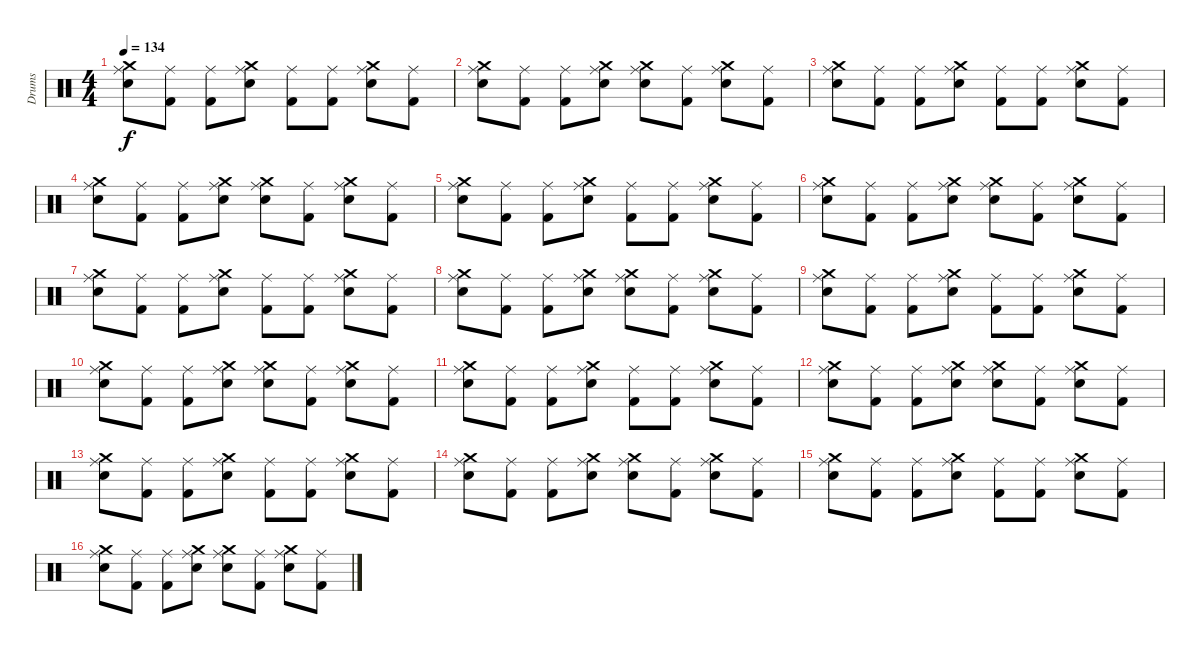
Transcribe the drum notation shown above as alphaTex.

\track ("Drums" "Drums") {instrument percussion}
\staff {score}
\articulation defaults
\ts (4 4)
\tempo 134
\clef neutral
\ks c
("Ride (middle)" "Crash medium (hit)" "Snare (hit) 2").8{dy f volume 13} ("Ride (middle)" "Kick (hit) 2").8 ("Ride (middle)" "Kick (hit) 2").8 ("Ride (middle)" "Crash medium (hit)" "Snare (hit) 2").8 ("Ride (middle)" "Kick (hit) 2").8 ("Ride (middle)" "Kick (hit) 2").8 ("Ride (middle)" "Crash medium (hit)" "Snare (hit) 2").8 ("Ride (middle)" "Kick (hit) 2").8 |
("Ride (middle)" "Crash medium (hit)" "Snare (hit) 2").8 ("Ride (middle)" "Kick (hit) 2").8 ("Ride (middle)" "Kick (hit) 2").8 ("Ride (middle)" "Crash medium (hit)" "Snare (hit) 2").8 ("Ride (middle)" "Crash medium (hit)" "Snare (hit) 2").8 ("Ride (middle)" "Kick (hit) 2").8 ("Ride (middle)" "Crash medium (hit)" "Snare (hit) 2").8 ("Ride (middle)" "Kick (hit) 2").8 |
("Ride (middle)" "Crash medium (hit)" "Snare (hit) 2").8 ("Ride (middle)" "Kick (hit) 2").8 ("Ride (middle)" "Kick (hit) 2").8 ("Ride (middle)" "Crash medium (hit)" "Snare (hit) 2").8 ("Ride (middle)" "Kick (hit) 2").8 ("Ride (middle)" "Kick (hit) 2").8 ("Ride (middle)" "Crash medium (hit)" "Snare (hit) 2").8 ("Ride (middle)" "Kick (hit) 2").8 |
("Ride (middle)" "Crash medium (hit)" "Snare (hit) 2").8 ("Ride (middle)" "Kick (hit) 2").8 ("Ride (middle)" "Kick (hit) 2").8 ("Ride (middle)" "Crash medium (hit)" "Snare (hit) 2").8 ("Ride (middle)" "Crash medium (hit)" "Snare (hit) 2").8 ("Ride (middle)" "Kick (hit) 2").8 ("Ride (middle)" "Crash medium (hit)" "Snare (hit) 2").8 ("Ride (middle)" "Kick (hit) 2").8 |
("Ride (middle)" "Crash medium (hit)" "Snare (hit) 2").8 ("Ride (middle)" "Kick (hit) 2").8 ("Ride (middle)" "Kick (hit) 2").8 ("Ride (middle)" "Crash medium (hit)" "Snare (hit) 2").8 ("Ride (middle)" "Kick (hit) 2").8 ("Ride (middle)" "Kick (hit) 2").8 ("Ride (middle)" "Crash medium (hit)" "Snare (hit) 2").8 ("Ride (middle)" "Kick (hit) 2").8 |
("Ride (middle)" "Crash medium (hit)" "Snare (hit) 2").8 ("Ride (middle)" "Kick (hit) 2").8 ("Ride (middle)" "Kick (hit) 2").8 ("Ride (middle)" "Crash medium (hit)" "Snare (hit) 2").8 ("Ride (middle)" "Crash medium (hit)" "Snare (hit) 2").8 ("Ride (middle)" "Kick (hit) 2").8 ("Ride (middle)" "Crash medium (hit)" "Snare (hit) 2").8 ("Ride (middle)" "Kick (hit) 2").8 |
("Ride (middle)" "Crash medium (hit)" "Snare (hit) 2").8 ("Ride (middle)" "Kick (hit) 2").8 ("Ride (middle)" "Kick (hit) 2").8 ("Ride (middle)" "Crash medium (hit)" "Snare (hit) 2").8 ("Ride (middle)" "Kick (hit) 2").8 ("Ride (middle)" "Kick (hit) 2").8 ("Ride (middle)" "Crash medium (hit)" "Snare (hit) 2").8 ("Ride (middle)" "Kick (hit) 2").8 |
("Ride (middle)" "Crash medium (hit)" "Snare (hit) 2").8 ("Ride (middle)" "Kick (hit) 2").8 ("Ride (middle)" "Kick (hit) 2").8 ("Ride (middle)" "Crash medium (hit)" "Snare (hit) 2").8 ("Ride (middle)" "Crash medium (hit)" "Snare (hit) 2").8 ("Ride (middle)" "Kick (hit) 2").8 ("Ride (middle)" "Crash medium (hit)" "Snare (hit) 2").8 ("Ride (middle)" "Kick (hit) 2").8 |
("Ride (middle)" "Crash medium (hit)" "Snare (hit) 2").8 ("Ride (middle)" "Kick (hit) 2").8 ("Ride (middle)" "Kick (hit) 2").8 ("Ride (middle)" "Crash medium (hit)" "Snare (hit) 2").8 ("Ride (middle)" "Kick (hit) 2").8 ("Ride (middle)" "Kick (hit) 2").8 ("Ride (middle)" "Crash medium (hit)" "Snare (hit) 2").8 ("Ride (middle)" "Kick (hit) 2").8 |
("Ride (middle)" "Crash medium (hit)" "Snare (hit) 2").8 ("Ride (middle)" "Kick (hit) 2").8 ("Ride (middle)" "Kick (hit) 2").8 ("Ride (middle)" "Crash medium (hit)" "Snare (hit) 2").8 ("Ride (middle)" "Crash medium (hit)" "Snare (hit) 2").8 ("Ride (middle)" "Kick (hit) 2").8 ("Ride (middle)" "Crash medium (hit)" "Snare (hit) 2").8 ("Ride (middle)" "Kick (hit) 2").8 |
("Ride (middle)" "Crash medium (hit)" "Snare (hit) 2").8 ("Ride (middle)" "Kick (hit) 2").8 ("Ride (middle)" "Kick (hit) 2").8 ("Ride (middle)" "Crash medium (hit)" "Snare (hit) 2").8 ("Ride (middle)" "Kick (hit) 2").8 ("Ride (middle)" "Kick (hit) 2").8 ("Ride (middle)" "Crash medium (hit)" "Snare (hit) 2").8 ("Ride (middle)" "Kick (hit) 2").8 |
("Ride (middle)" "Crash medium (hit)" "Snare (hit) 2").8 ("Ride (middle)" "Kick (hit) 2").8 ("Ride (middle)" "Kick (hit) 2").8 ("Ride (middle)" "Crash medium (hit)" "Snare (hit) 2").8 ("Ride (middle)" "Crash medium (hit)" "Snare (hit) 2").8 ("Ride (middle)" "Kick (hit) 2").8 ("Ride (middle)" "Crash medium (hit)" "Snare (hit) 2").8 ("Ride (middle)" "Kick (hit) 2").8 |
("Ride (middle)" "Crash medium (hit)" "Snare (hit) 2").8 ("Ride (middle)" "Kick (hit) 2").8 ("Ride (middle)" "Kick (hit) 2").8 ("Ride (middle)" "Crash medium (hit)" "Snare (hit) 2").8 ("Ride (middle)" "Kick (hit) 2").8 ("Ride (middle)" "Kick (hit) 2").8 ("Ride (middle)" "Crash medium (hit)" "Snare (hit) 2").8 ("Ride (middle)" "Kick (hit) 2").8 |
("Ride (middle)" "Crash medium (hit)" "Snare (hit) 2").8 ("Ride (middle)" "Kick (hit) 2").8 ("Ride (middle)" "Kick (hit) 2").8 ("Ride (middle)" "Crash medium (hit)" "Snare (hit) 2").8 ("Ride (middle)" "Crash medium (hit)" "Snare (hit) 2").8 ("Ride (middle)" "Kick (hit) 2").8 ("Ride (middle)" "Crash medium (hit)" "Snare (hit) 2").8 ("Ride (middle)" "Kick (hit) 2").8 |
("Ride (middle)" "Crash medium (hit)" "Snare (hit) 2").8 ("Ride (middle)" "Kick (hit) 2").8 ("Ride (middle)" "Kick (hit) 2").8 ("Ride (middle)" "Crash medium (hit)" "Snare (hit) 2").8 ("Ride (middle)" "Kick (hit) 2").8 ("Ride (middle)" "Kick (hit) 2").8 ("Ride (middle)" "Crash medium (hit)" "Snare (hit) 2").8 ("Ride (middle)" "Kick (hit) 2").8 |
("Ride (middle)" "Crash medium (hit)" "Snare (hit) 2").8 ("Ride (middle)" "Kick (hit) 2").8 ("Ride (middle)" "Kick (hit) 2").8 ("Ride (middle)" "Crash medium (hit)" "Snare (hit) 2").8 ("Ride (middle)" "Crash medium (hit)" "Snare (hit) 2").8 ("Ride (middle)" "Kick (hit) 2").8 ("Ride (middle)" "Crash medium (hit)" "Snare (hit) 2").8 ("Ride (middle)" "Kick (hit) 2").8
